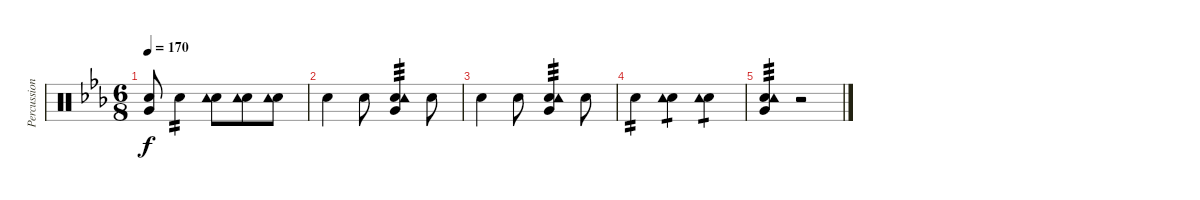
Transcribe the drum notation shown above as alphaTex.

\track ("Percussioni" "Percussion") {instrument percussion}
\staff {score}
\articulation defaults
\ts (6 8)
\tempo 170
\clef neutral
\ks eb
("Very Low Tom (hit)" "Electric Snare (hit)").8{dy f} "Electric Snare (hit)".4{tp 2} ("Electric Snare (hit)" "Tambourine (hit)").8 ("Electric Snare (hit)" "Tambourine (hit)").8 ("Electric Snare (hit)" "Tambourine (hit)").8 |
"Electric Snare (hit)".4 "Electric Snare (hit)".8 ("Very Low Tom (hit)" "Electric Snare (hit)" "Tambourine (hit)").4{tp 3} "Electric Snare (hit)".8 |
"Electric Snare (hit)".4 "Electric Snare (hit)".8 ("Very Low Tom (hit)" "Electric Snare (hit)" "Tambourine (hit)").4{tp 3} "Electric Snare (hit)".8 |
"Electric Snare (hit)".4{tp 2} ("Electric Snare (hit)" "Tambourine (hit)").4{tp 1} ("Electric Snare (hit)" "Tambourine (hit)").4{tp 1} |
("Very Low Tom (hit)" "Electric Snare (hit)" "Tambourine (hit)").4{tp 3} r.2
